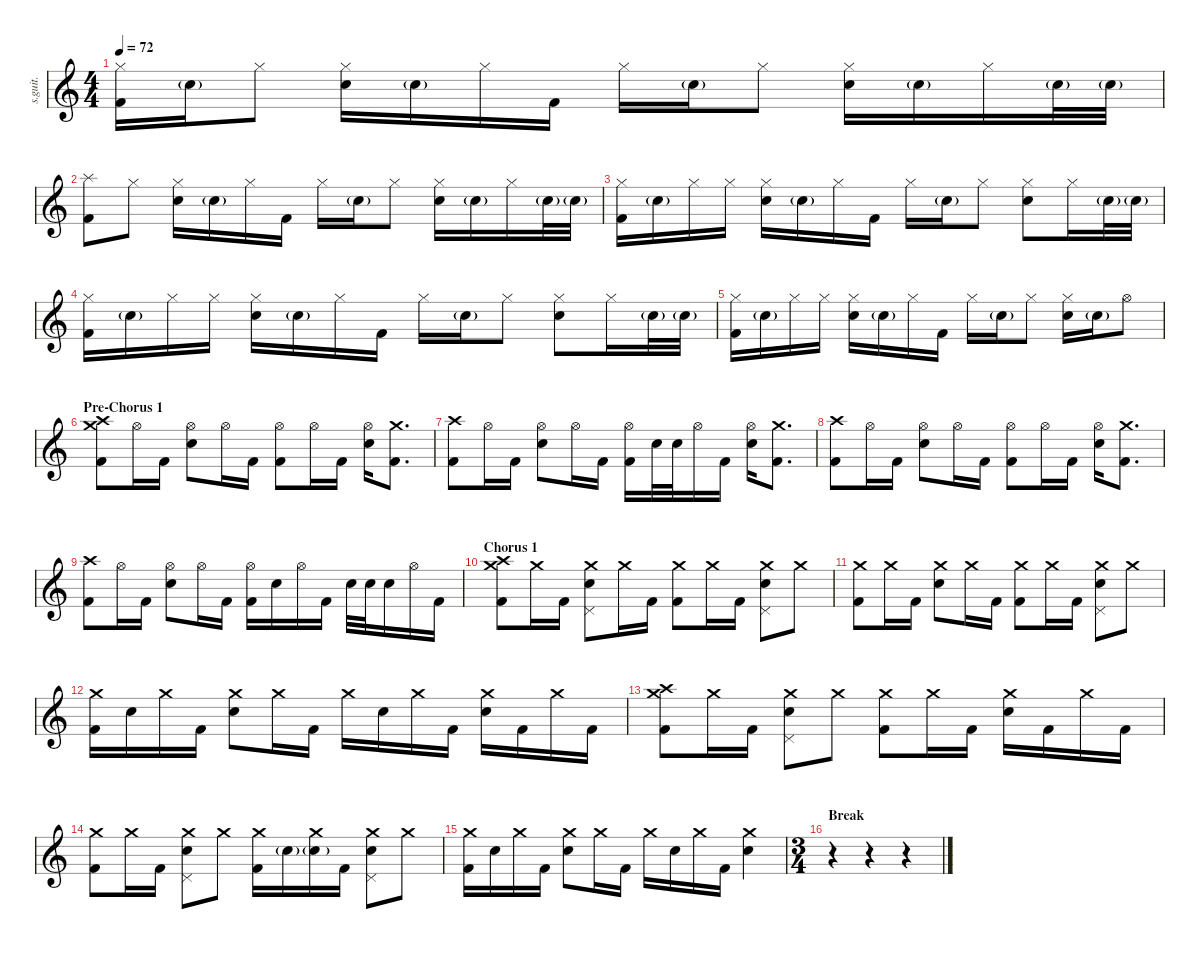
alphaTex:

\defaultSystemsLayout 4
\hideDynamics
\bracketExtendMode nobrackets
\track ("Abe Cunningham" "s.guit.") {instrument percussion}
\staff {score}
\articulation defaults
\ts (4 4)
\tempo 72
\clef g2
\ks c
("Kick (hit) 2" "Hi-Hat (closed)").16{lyrics (0 "") lyrics (1 "") lyrics (2 "") lyrics (3 "") lyrics (4 "") dy fff} "Snare (hit) 2"{g}.16{lyrics (0 "") lyrics (1 "") lyrics (2 "") lyrics (3 "") lyrics (4 "")} "Hi-Hat (closed)".8{lyrics (0 "") lyrics (1 "") lyrics (2 "") lyrics (3 "") lyrics (4 "")} ("Hi-Hat (closed)" "Snare (hit) 2").16{lyrics (0 "") lyrics (1 "") lyrics (2 "") lyrics (3 "") lyrics (4 "")} "Snare (hit) 2"{g}.16{lyrics (0 "") lyrics (1 "") lyrics (2 "") lyrics (3 "") lyrics (4 "")} "Hi-Hat (closed)".16{lyrics (0 "") lyrics (1 "") lyrics (2 "") lyrics (3 "") lyrics (4 "")} "Kick (hit) 2".16{lyrics (0 "") lyrics (1 "") lyrics (2 "") lyrics (3 "") lyrics (4 "")} "Hi-Hat (closed)".16{lyrics (0 "") lyrics (1 "") lyrics (2 "") lyrics (3 "") lyrics (4 "")} "Snare (hit) 2"{g}.16{lyrics (0 "") lyrics (1 "") lyrics (2 "") lyrics (3 "") lyrics (4 "")} "Hi-Hat (closed)".8{lyrics (0 "") lyrics (1 "") lyrics (2 "") lyrics (3 "") lyrics (4 "")} ("Hi-Hat (closed)" "Snare (hit) 2").16{lyrics (0 "") lyrics (1 "") lyrics (2 "") lyrics (3 "") lyrics (4 "")} "Snare (hit) 2"{g}.16{lyrics (0 "") lyrics (1 "") lyrics (2 "") lyrics (3 "") lyrics (4 "")} "Hi-Hat (closed)".16{lyrics (0 "") lyrics (1 "") lyrics (2 "") lyrics (3 "") lyrics (4 "")} "Snare (hit) 2"{g}.32{lyrics (0 "") lyrics (1 "") lyrics (2 "") lyrics (3 "") lyrics (4 "")} "Snare (hit) 2"{g}.32{lyrics (0 "") lyrics (1 "") lyrics (2 "") lyrics (3 "") lyrics (4 "")} |
("Kick (hit) 2" "Splash (hit)").8{lyrics (0 "") lyrics (1 "") lyrics (2 "") lyrics (3 "") lyrics (4 "")} "Hi-Hat (closed)".8{lyrics (0 "") lyrics (1 "") lyrics (2 "") lyrics (3 "") lyrics (4 "")} ("Hi-Hat (closed)" "Snare (hit) 2").16{lyrics (0 "") lyrics (1 "") lyrics (2 "") lyrics (3 "") lyrics (4 "")} "Snare (hit) 2"{g}.16{lyrics (0 "") lyrics (1 "") lyrics (2 "") lyrics (3 "") lyrics (4 "")} "Hi-Hat (closed)".16{lyrics (0 "") lyrics (1 "") lyrics (2 "") lyrics (3 "") lyrics (4 "")} "Kick (hit) 2".16{lyrics (0 "") lyrics (1 "") lyrics (2 "") lyrics (3 "") lyrics (4 "")} "Hi-Hat (closed)".16{lyrics (0 "") lyrics (1 "") lyrics (2 "") lyrics (3 "") lyrics (4 "")} "Snare (hit) 2"{g}.16{lyrics (0 "") lyrics (1 "") lyrics (2 "") lyrics (3 "") lyrics (4 "")} "Hi-Hat (closed)".8{lyrics (0 "") lyrics (1 "") lyrics (2 "") lyrics (3 "") lyrics (4 "")} ("Hi-Hat (closed)" "Snare (hit) 2").16{lyrics (0 "") lyrics (1 "") lyrics (2 "") lyrics (3 "") lyrics (4 "")} "Snare (hit) 2"{g}.16{lyrics (0 "") lyrics (1 "") lyrics (2 "") lyrics (3 "") lyrics (4 "")} "Hi-Hat (closed)".16{lyrics (0 "") lyrics (1 "") lyrics (2 "") lyrics (3 "") lyrics (4 "")} "Snare (hit) 2"{g}.32{lyrics (0 "") lyrics (1 "") lyrics (2 "") lyrics (3 "") lyrics (4 "")} "Snare (hit) 2"{g}.32{lyrics (0 "") lyrics (1 "") lyrics (2 "") lyrics (3 "") lyrics (4 "")} |
("Kick (hit) 2" "Hi-Hat (closed)").16{lyrics (0 "") lyrics (1 "") lyrics (2 "") lyrics (3 "") lyrics (4 "")} "Snare (hit) 2"{g}.16{lyrics (0 "") lyrics (1 "") lyrics (2 "") lyrics (3 "") lyrics (4 "")} "Hi-Hat (closed)".16{lyrics (0 "") lyrics (1 "") lyrics (2 "") lyrics (3 "") lyrics (4 "")} "Hi-Hat (closed)".16{lyrics (0 "") lyrics (1 "") lyrics (2 "") lyrics (3 "") lyrics (4 "")} ("Hi-Hat (closed)" "Snare (hit) 2").16{lyrics (0 "") lyrics (1 "") lyrics (2 "") lyrics (3 "") lyrics (4 "")} "Snare (hit) 2"{g}.16{lyrics (0 "") lyrics (1 "") lyrics (2 "") lyrics (3 "") lyrics (4 "")} "Hi-Hat (closed)".16{lyrics (0 "") lyrics (1 "") lyrics (2 "") lyrics (3 "") lyrics (4 "")} "Kick (hit) 2".16{lyrics (0 "") lyrics (1 "") lyrics (2 "") lyrics (3 "") lyrics (4 "")} "Hi-Hat (closed)".16{lyrics (0 "") lyrics (1 "") lyrics (2 "") lyrics (3 "") lyrics (4 "")} "Snare (hit) 2"{g}.16{lyrics (0 "") lyrics (1 "") lyrics (2 "") lyrics (3 "") lyrics (4 "")} "Hi-Hat (closed)".8{lyrics (0 "") lyrics (1 "") lyrics (2 "") lyrics (3 "") lyrics (4 "")} ("Hi-Hat (closed)" "Snare (hit) 2").8{lyrics (0 "") lyrics (1 "") lyrics (2 "") lyrics (3 "") lyrics (4 "")} "Hi-Hat (closed)".16{lyrics (0 "") lyrics (1 "") lyrics (2 "") lyrics (3 "") lyrics (4 "")} "Snare (hit) 2"{g}.32{lyrics (0 "") lyrics (1 "") lyrics (2 "") lyrics (3 "") lyrics (4 "")} "Snare (hit) 2"{g}.32{lyrics (0 "") lyrics (1 "") lyrics (2 "") lyrics (3 "") lyrics (4 "")} |
("Kick (hit) 2" "Hi-Hat (closed)").16{lyrics (0 "") lyrics (1 "") lyrics (2 "") lyrics (3 "") lyrics (4 "")} "Snare (hit) 2"{g}.16{lyrics (0 "") lyrics (1 "") lyrics (2 "") lyrics (3 "") lyrics (4 "")} "Hi-Hat (closed)".16{lyrics (0 "") lyrics (1 "") lyrics (2 "") lyrics (3 "") lyrics (4 "")} "Hi-Hat (closed)".16{lyrics (0 "") lyrics (1 "") lyrics (2 "") lyrics (3 "") lyrics (4 "")} ("Hi-Hat (closed)" "Snare (hit) 2").16{lyrics (0 "") lyrics (1 "") lyrics (2 "") lyrics (3 "") lyrics (4 "")} "Snare (hit) 2"{g}.16{lyrics (0 "") lyrics (1 "") lyrics (2 "") lyrics (3 "") lyrics (4 "")} "Hi-Hat (closed)".16{lyrics (0 "") lyrics (1 "") lyrics (2 "") lyrics (3 "") lyrics (4 "")} "Kick (hit) 2".16{lyrics (0 "") lyrics (1 "") lyrics (2 "") lyrics (3 "") lyrics (4 "")} "Hi-Hat (closed)".16{lyrics (0 "") lyrics (1 "") lyrics (2 "") lyrics (3 "") lyrics (4 "")} "Snare (hit) 2"{g}.16{lyrics (0 "") lyrics (1 "") lyrics (2 "") lyrics (3 "") lyrics (4 "")} "Hi-Hat (closed)".8{lyrics (0 "") lyrics (1 "") lyrics (2 "") lyrics (3 "") lyrics (4 "")} ("Hi-Hat (closed)" "Snare (hit) 2").8{lyrics (0 "") lyrics (1 "") lyrics (2 "") lyrics (3 "") lyrics (4 "")} "Hi-Hat (closed)".16{lyrics (0 "") lyrics (1 "") lyrics (2 "") lyrics (3 "") lyrics (4 "")} "Snare (hit) 2"{g}.32{lyrics (0 "") lyrics (1 "") lyrics (2 "") lyrics (3 "") lyrics (4 "")} "Snare (hit) 2"{g}.32{lyrics (0 "") lyrics (1 "") lyrics (2 "") lyrics (3 "") lyrics (4 "")} |
("Kick (hit) 2" "Hi-Hat (closed)").16{lyrics (0 "") lyrics (1 "") lyrics (2 "") lyrics (3 "") lyrics (4 "")} "Snare (hit) 2"{g}.16{lyrics (0 "") lyrics (1 "") lyrics (2 "") lyrics (3 "") lyrics (4 "")} "Hi-Hat (closed)".16{lyrics (0 "") lyrics (1 "") lyrics (2 "") lyrics (3 "") lyrics (4 "")} "Hi-Hat (closed)".16{lyrics (0 "") lyrics (1 "") lyrics (2 "") lyrics (3 "") lyrics (4 "")} ("Hi-Hat (closed)" "Snare (hit) 2").16{lyrics (0 "") lyrics (1 "") lyrics (2 "") lyrics (3 "") lyrics (4 "")} "Snare (hit) 2"{g}.16{lyrics (0 "") lyrics (1 "") lyrics (2 "") lyrics (3 "") lyrics (4 "")} "Hi-Hat (closed)".16{lyrics (0 "") lyrics (1 "") lyrics (2 "") lyrics (3 "") lyrics (4 "")} "Kick (hit) 2".16{lyrics (0 "") lyrics (1 "") lyrics (2 "") lyrics (3 "") lyrics (4 "")} "Hi-Hat (closed)".16{lyrics (0 "") lyrics (1 "") lyrics (2 "") lyrics (3 "") lyrics (4 "")} "Snare (hit) 2"{g}.16{lyrics (0 "") lyrics (1 "") lyrics (2 "") lyrics (3 "") lyrics (4 "")} "Hi-Hat (closed)".8{lyrics (0 "") lyrics (1 "") lyrics (2 "") lyrics (3 "") lyrics (4 "")} ("Hi-Hat (closed)" "Snare (hit) 2").16{lyrics (0 "") lyrics (1 "") lyrics (2 "") lyrics (3 "") lyrics (4 "")} "Snare (hit) 2"{g}.16{lyrics (0 "") lyrics (1 "") lyrics (2 "") lyrics (3 "") lyrics (4 "")} "Hi-Hat (open)".8{lyrics (0 "") lyrics (1 "") lyrics (2 "") lyrics (3 "") lyrics (4 "")} |
\section ("" "Pre-Chorus 1")
("Crash high (hit)" "Kick (hit) 2" "Crash medium (hit)").8{lyrics (0 "") lyrics (1 "") lyrics (2 "") lyrics (3 "") lyrics (4 "")} "Hi-Hat (open)".16{lyrics (0 "") lyrics (1 "") lyrics (2 "") lyrics (3 "") lyrics (4 "")} "Kick (hit) 2".16{lyrics (0 "") lyrics (1 "") lyrics (2 "") lyrics (3 "") lyrics (4 "")} ("Hi-Hat (open)" "Snare (hit) 2").8{lyrics (0 "") lyrics (1 "") lyrics (2 "") lyrics (3 "") lyrics (4 "")} "Hi-Hat (open)".16{lyrics (0 "") lyrics (1 "") lyrics (2 "") lyrics (3 "") lyrics (4 "")} "Kick (hit) 2".16{lyrics (0 "") lyrics (1 "") lyrics (2 "") lyrics (3 "") lyrics (4 "")} ("Hi-Hat (open)" "Kick (hit) 2").8{lyrics (0 "") lyrics (1 "") lyrics (2 "") lyrics (3 "") lyrics (4 "")} "Hi-Hat (open)".16{lyrics (0 "") lyrics (1 "") lyrics (2 "") lyrics (3 "") lyrics (4 "")} "Kick (hit) 2".16{lyrics (0 "") lyrics (1 "") lyrics (2 "") lyrics (3 "") lyrics (4 "")} ("Hi-Hat (open)" "Snare (hit) 2").16{lyrics (0 "") lyrics (1 "") lyrics (2 "") lyrics (3 "") lyrics (4 "")} ("Kick (hit) 2" "Crash medium (hit)").8{d lyrics (0 "") lyrics (1 "") lyrics (2 "") lyrics (3 "") lyrics (4 "")} |
("Kick (hit) 2" "Crash high (hit)").8{lyrics (0 "") lyrics (1 "") lyrics (2 "") lyrics (3 "") lyrics (4 "")} "Hi-Hat (open)".16{lyrics (0 "") lyrics (1 "") lyrics (2 "") lyrics (3 "") lyrics (4 "")} "Kick (hit) 2".16{lyrics (0 "") lyrics (1 "") lyrics (2 "") lyrics (3 "") lyrics (4 "")} ("Hi-Hat (open)" "Snare (hit) 2").8{lyrics (0 "") lyrics (1 "") lyrics (2 "") lyrics (3 "") lyrics (4 "")} "Hi-Hat (open)".16{lyrics (0 "") lyrics (1 "") lyrics (2 "") lyrics (3 "") lyrics (4 "")} "Kick (hit) 2".16{lyrics (0 "") lyrics (1 "") lyrics (2 "") lyrics (3 "") lyrics (4 "")} ("Hi-Hat (open)" "Kick (hit) 2").16{lyrics (0 "") lyrics (1 "") lyrics (2 "") lyrics (3 "") lyrics (4 "")} "Snare (hit) 2".32{lyrics (0 "") lyrics (1 "") lyrics (2 "") lyrics (3 "") lyrics (4 "")} "Snare (hit) 2".32{lyrics (0 "") lyrics (1 "") lyrics (2 "") lyrics (3 "") lyrics (4 "")} "Hi-Hat (open)".16{lyrics (0 "") lyrics (1 "") lyrics (2 "") lyrics (3 "") lyrics (4 "")} "Kick (hit) 2".16{lyrics (0 "") lyrics (1 "") lyrics (2 "") lyrics (3 "") lyrics (4 "")} ("Hi-Hat (open)" "Snare (hit) 2").16{lyrics (0 "") lyrics (1 "") lyrics (2 "") lyrics (3 "") lyrics (4 "")} ("Kick (hit) 2" "Crash medium (hit)").8{d lyrics (0 "") lyrics (1 "") lyrics (2 "") lyrics (3 "") lyrics (4 "")} |
("Kick (hit) 2" "Crash high (hit)").8{lyrics (0 "") lyrics (1 "") lyrics (2 "") lyrics (3 "") lyrics (4 "")} "Hi-Hat (open)".16{lyrics (0 "") lyrics (1 "") lyrics (2 "") lyrics (3 "") lyrics (4 "")} "Kick (hit) 2".16{lyrics (0 "") lyrics (1 "") lyrics (2 "") lyrics (3 "") lyrics (4 "")} ("Hi-Hat (open)" "Snare (hit) 2").8{lyrics (0 "") lyrics (1 "") lyrics (2 "") lyrics (3 "") lyrics (4 "")} "Hi-Hat (open)".16{lyrics (0 "") lyrics (1 "") lyrics (2 "") lyrics (3 "") lyrics (4 "")} "Kick (hit) 2".16{lyrics (0 "") lyrics (1 "") lyrics (2 "") lyrics (3 "") lyrics (4 "")} ("Hi-Hat (open)" "Kick (hit) 2").8{lyrics (0 "") lyrics (1 "") lyrics (2 "") lyrics (3 "") lyrics (4 "")} "Hi-Hat (open)".16{lyrics (0 "") lyrics (1 "") lyrics (2 "") lyrics (3 "") lyrics (4 "")} "Kick (hit) 2".16{lyrics (0 "") lyrics (1 "") lyrics (2 "") lyrics (3 "") lyrics (4 "")} ("Hi-Hat (open)" "Snare (hit) 2").16{lyrics (0 "") lyrics (1 "") lyrics (2 "") lyrics (3 "") lyrics (4 "")} ("Kick (hit) 2" "Crash medium (hit)").8{d lyrics (0 "") lyrics (1 "") lyrics (2 "") lyrics (3 "") lyrics (4 "")} |
("Kick (hit) 2" "Crash high (hit)").8{lyrics (0 "") lyrics (1 "") lyrics (2 "") lyrics (3 "") lyrics (4 "")} "Hi-Hat (open)".16{lyrics (0 "") lyrics (1 "") lyrics (2 "") lyrics (3 "") lyrics (4 "")} "Kick (hit) 2".16{lyrics (0 "") lyrics (1 "") lyrics (2 "") lyrics (3 "") lyrics (4 "")} ("Hi-Hat (open)" "Snare (hit) 2").8{lyrics (0 "") lyrics (1 "") lyrics (2 "") lyrics (3 "") lyrics (4 "")} "Hi-Hat (open)".16{lyrics (0 "") lyrics (1 "") lyrics (2 "") lyrics (3 "") lyrics (4 "")} "Kick (hit) 2".16{lyrics (0 "") lyrics (1 "") lyrics (2 "") lyrics (3 "") lyrics (4 "")} ("Hi-Hat (open)" "Kick (hit) 2").16{lyrics (0 "") lyrics (1 "") lyrics (2 "") lyrics (3 "") lyrics (4 "")} "Snare (hit) 2".16{lyrics (0 "") lyrics (1 "") lyrics (2 "") lyrics (3 "") lyrics (4 "")} "Hi-Hat (open)".16{lyrics (0 "") lyrics (1 "") lyrics (2 "") lyrics (3 "") lyrics (4 "")} "Kick (hit) 2".16{lyrics (0 "") lyrics (1 "") lyrics (2 "") lyrics (3 "") lyrics (4 "")} "Snare (hit) 2".32{lyrics (0 "") lyrics (1 "") lyrics (2 "") lyrics (3 "") lyrics (4 "")} "Snare (hit) 2".32{lyrics (0 "") lyrics (1 "") lyrics (2 "") lyrics (3 "") lyrics (4 "")} "Snare (hit) 2".16{lyrics (0 "") lyrics (1 "") lyrics (2 "") lyrics (3 "") lyrics (4 "")} "Hi-Hat (open)".16{lyrics (0 "") lyrics (1 "") lyrics (2 "") lyrics (3 "") lyrics (4 "")} "Kick (hit) 2".16{lyrics (0 "") lyrics (1 "") lyrics (2 "") lyrics (3 "") lyrics (4 "")} |
\section ("" "Chorus 1")
("Crash medium (hit)" "Kick (hit) 2" "Crash high (hit)").8{lyrics (0 "") lyrics (1 "") lyrics (2 "") lyrics (3 "") lyrics (4 "")} "Crash medium (hit)".16{lyrics (0 "") lyrics (1 "") lyrics (2 "") lyrics (3 "") lyrics (4 "")} "Kick (hit) 2".16{lyrics (0 "") lyrics (1 "") lyrics (2 "") lyrics (3 "") lyrics (4 "")} ("Crash medium (hit)" "Snare (hit) 2" "Pedal Hi-Hat (hit)").8{lyrics (0 "") lyrics (1 "") lyrics (2 "") lyrics (3 "") lyrics (4 "")} "Crash medium (hit)".16{lyrics (0 "") lyrics (1 "") lyrics (2 "") lyrics (3 "") lyrics (4 "")} "Kick (hit) 2".16{lyrics (0 "") lyrics (1 "") lyrics (2 "") lyrics (3 "") lyrics (4 "")} ("Crash medium (hit)" "Kick (hit) 2").8{lyrics (0 "") lyrics (1 "") lyrics (2 "") lyrics (3 "") lyrics (4 "")} "Crash medium (hit)".16{lyrics (0 "") lyrics (1 "") lyrics (2 "") lyrics (3 "") lyrics (4 "")} "Kick (hit) 2".16{lyrics (0 "") lyrics (1 "") lyrics (2 "") lyrics (3 "") lyrics (4 "")} ("Crash medium (hit)" "Snare (hit) 2" "Pedal Hi-Hat (hit)").8{lyrics (0 "") lyrics (1 "") lyrics (2 "") lyrics (3 "") lyrics (4 "")} "Crash medium (hit)".8{lyrics (0 "") lyrics (1 "") lyrics (2 "") lyrics (3 "") lyrics (4 "")} |
("Crash medium (hit)" "Kick (hit) 2").8{lyrics (0 "") lyrics (1 "") lyrics (2 "") lyrics (3 "") lyrics (4 "")} "Crash medium (hit)".16{lyrics (0 "") lyrics (1 "") lyrics (2 "") lyrics (3 "") lyrics (4 "")} "Kick (hit) 2".16{lyrics (0 "") lyrics (1 "") lyrics (2 "") lyrics (3 "") lyrics (4 "")} ("Crash medium (hit)" "Snare (hit) 2").8{lyrics (0 "") lyrics (1 "") lyrics (2 "") lyrics (3 "") lyrics (4 "")} "Crash medium (hit)".16{lyrics (0 "") lyrics (1 "") lyrics (2 "") lyrics (3 "") lyrics (4 "")} "Kick (hit) 2".16{lyrics (0 "") lyrics (1 "") lyrics (2 "") lyrics (3 "") lyrics (4 "")} ("Crash medium (hit)" "Kick (hit) 2").8{lyrics (0 "") lyrics (1 "") lyrics (2 "") lyrics (3 "") lyrics (4 "")} "Crash medium (hit)".16{lyrics (0 "") lyrics (1 "") lyrics (2 "") lyrics (3 "") lyrics (4 "")} "Kick (hit) 2".16{lyrics (0 "") lyrics (1 "") lyrics (2 "") lyrics (3 "") lyrics (4 "")} ("Crash medium (hit)" "Snare (hit) 2" "Pedal Hi-Hat (hit)").8{lyrics (0 "") lyrics (1 "") lyrics (2 "") lyrics (3 "") lyrics (4 "")} "Crash medium (hit)".8{lyrics (0 "") lyrics (1 "") lyrics (2 "") lyrics (3 "") lyrics (4 "")} |
("Kick (hit) 2" "Crash medium (hit)").16{lyrics (0 "") lyrics (1 "") lyrics (2 "") lyrics (3 "") lyrics (4 "")} "Snare (hit) 2".16{lyrics (0 "") lyrics (1 "") lyrics (2 "") lyrics (3 "") lyrics (4 "")} "Crash medium (hit)".16{lyrics (0 "") lyrics (1 "") lyrics (2 "") lyrics (3 "") lyrics (4 "")} "Kick (hit) 2".16{lyrics (0 "") lyrics (1 "") lyrics (2 "") lyrics (3 "") lyrics (4 "")} ("Crash medium (hit)" "Snare (hit) 2").8{lyrics (0 "") lyrics (1 "") lyrics (2 "") lyrics (3 "") lyrics (4 "")} "Crash medium (hit)".16{lyrics (0 "") lyrics (1 "") lyrics (2 "") lyrics (3 "") lyrics (4 "")} "Kick (hit) 2".16{lyrics (0 "") lyrics (1 "") lyrics (2 "") lyrics (3 "") lyrics (4 "")} "Crash medium (hit)".16{lyrics (0 "") lyrics (1 "") lyrics (2 "") lyrics (3 "") lyrics (4 "")} "Snare (hit) 2".16{lyrics (0 "") lyrics (1 "") lyrics (2 "") lyrics (3 "") lyrics (4 "")} "Crash medium (hit)".16{lyrics (0 "") lyrics (1 "") lyrics (2 "") lyrics (3 "") lyrics (4 "")} "Kick (hit) 2".16{lyrics (0 "") lyrics (1 "") lyrics (2 "") lyrics (3 "") lyrics (4 "")} ("Crash medium (hit)" "Snare (hit) 2").16{lyrics (0 "") lyrics (1 "") lyrics (2 "") lyrics (3 "") lyrics (4 "")} "Kick (hit) 2".16{lyrics (0 "") lyrics (1 "") lyrics (2 "") lyrics (3 "") lyrics (4 "")} "Crash medium (hit)".16{lyrics (0 "") lyrics (1 "") lyrics (2 "") lyrics (3 "") lyrics (4 "")} "Kick (hit) 2".16{lyrics (0 "") lyrics (1 "") lyrics (2 "") lyrics (3 "") lyrics (4 "")} |
("Crash medium (hit)" "Kick (hit) 2" "Crash high (hit)").8{lyrics (0 "") lyrics (1 "") lyrics (2 "") lyrics (3 "") lyrics (4 "")} "Crash medium (hit)".16{lyrics (0 "") lyrics (1 "") lyrics (2 "") lyrics (3 "") lyrics (4 "")} "Kick (hit) 2".16{lyrics (0 "") lyrics (1 "") lyrics (2 "") lyrics (3 "") lyrics (4 "")} ("Crash medium (hit)" "Snare (hit) 2" "Pedal Hi-Hat (hit)").8{lyrics (0 "") lyrics (1 "") lyrics (2 "") lyrics (3 "") lyrics (4 "")} "Crash medium (hit)".8{lyrics (0 "") lyrics (1 "") lyrics (2 "") lyrics (3 "") lyrics (4 "")} ("Crash medium (hit)" "Kick (hit) 2").8{lyrics (0 "") lyrics (1 "") lyrics (2 "") lyrics (3 "") lyrics (4 "")} "Crash medium (hit)".16{lyrics (0 "") lyrics (1 "") lyrics (2 "") lyrics (3 "") lyrics (4 "")} "Kick (hit) 2".16{lyrics (0 "") lyrics (1 "") lyrics (2 "") lyrics (3 "") lyrics (4 "")} ("Crash medium (hit)" "Snare (hit) 2").16{lyrics (0 "") lyrics (1 "") lyrics (2 "") lyrics (3 "") lyrics (4 "")} "Kick (hit) 2".16{lyrics (0 "") lyrics (1 "") lyrics (2 "") lyrics (3 "") lyrics (4 "")} "Crash medium (hit)".16{lyrics (0 "") lyrics (1 "") lyrics (2 "") lyrics (3 "") lyrics (4 "")} "Kick (hit) 2".16{lyrics (0 "") lyrics (1 "") lyrics (2 "") lyrics (3 "") lyrics (4 "")} |
("Crash medium (hit)" "Kick (hit) 2").8{lyrics (0 "") lyrics (1 "") lyrics (2 "") lyrics (3 "") lyrics (4 "")} "Crash medium (hit)".16{lyrics (0 "") lyrics (1 "") lyrics (2 "") lyrics (3 "") lyrics (4 "")} "Kick (hit) 2".16{lyrics (0 "") lyrics (1 "") lyrics (2 "") lyrics (3 "") lyrics (4 "")} ("Crash medium (hit)" "Snare (hit) 2" "Pedal Hi-Hat (hit)").8{lyrics (0 "") lyrics (1 "") lyrics (2 "") lyrics (3 "") lyrics (4 "")} "Crash medium (hit)".8{lyrics (0 "") lyrics (1 "") lyrics (2 "") lyrics (3 "") lyrics (4 "")} ("Crash medium (hit)" "Kick (hit) 2").16{lyrics (0 "") lyrics (1 "") lyrics (2 "") lyrics (3 "") lyrics (4 "")} "Snare (hit) 2"{g}.16{lyrics (0 "") lyrics (1 "") lyrics (2 "") lyrics (3 "") lyrics (4 "")} ("Crash medium (hit)" "Snare (hit) 2"{g}).16{lyrics (0 "") lyrics (1 "") lyrics (2 "") lyrics (3 "") lyrics (4 "")} "Kick (hit) 2".16{lyrics (0 "") lyrics (1 "") lyrics (2 "") lyrics (3 "") lyrics (4 "")} ("Crash medium (hit)" "Snare (hit) 2" "Pedal Hi-Hat (hit)").8{lyrics (0 "") lyrics (1 "") lyrics (2 "") lyrics (3 "") lyrics (4 "")} "Crash medium (hit)".8{lyrics (0 "") lyrics (1 "") lyrics (2 "") lyrics (3 "") lyrics (4 "")} |
("Crash medium (hit)" "Kick (hit) 2").16{lyrics (0 "") lyrics (1 "") lyrics (2 "") lyrics (3 "") lyrics (4 "")} "Snare (hit) 2".16{lyrics (0 "") lyrics (1 "") lyrics (2 "") lyrics (3 "") lyrics (4 "")} "Crash medium (hit)".16{lyrics (0 "") lyrics (1 "") lyrics (2 "") lyrics (3 "") lyrics (4 "")} "Kick (hit) 2".16{lyrics (0 "") lyrics (1 "") lyrics (2 "") lyrics (3 "") lyrics (4 "")} ("Crash medium (hit)" "Snare (hit) 2").8{lyrics (0 "") lyrics (1 "") lyrics (2 "") lyrics (3 "") lyrics (4 "")} "Crash medium (hit)".16{lyrics (0 "") lyrics (1 "") lyrics (2 "") lyrics (3 "") lyrics (4 "")} "Kick (hit) 2".16{lyrics (0 "") lyrics (1 "") lyrics (2 "") lyrics (3 "") lyrics (4 "")} "Crash medium (hit)".16{lyrics (0 "") lyrics (1 "") lyrics (2 "") lyrics (3 "") lyrics (4 "")} "Snare (hit) 2".16{lyrics (0 "") lyrics (1 "") lyrics (2 "") lyrics (3 "") lyrics (4 "")} "Crash medium (hit)".16{lyrics (0 "") lyrics (1 "") lyrics (2 "") lyrics (3 "") lyrics (4 "")} "Kick (hit) 2".16{lyrics (0 "") lyrics (1 "") lyrics (2 "") lyrics (3 "") lyrics (4 "")} ("Snare (hit) 2" "Crash medium (hit)").4{lyrics (0 "") lyrics (1 "") lyrics (2 "") lyrics (3 "") lyrics (4 "")} |
\ts (3 4)
\beaming (8 2 2 2 2)
\section ("" "Break")
r.4 r.4 r.4
